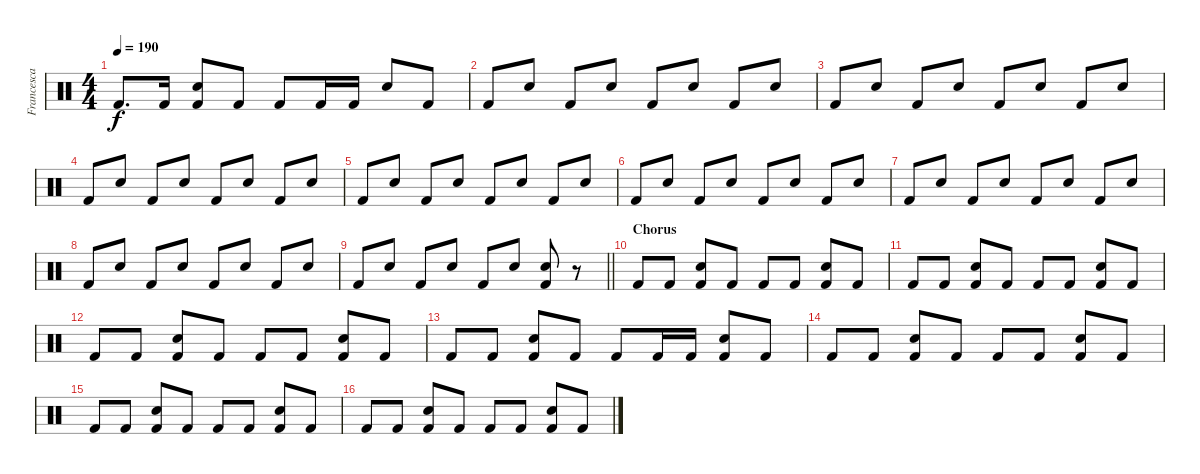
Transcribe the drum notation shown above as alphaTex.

\track ("Francesca Tresca" "Francesca ") {instrument percussion}
\staff {score}
\articulation defaults
\ts (4 4)
\tempo 190
\clef neutral
\ks c "Kick (hit) 2".8{d dy f} "Kick (hit) 2".16
("Snare (hit) 2" "Kick (hit) 2").8 "Kick (hit) 2".8 "Kick (hit) 2".8 "Kick (hit) 2".16 "Kick (hit) 2".16 "Snare (hit) 2".8 "Kick (hit) 2".8 |
"Kick (hit) 2".8 "Snare (hit) 2".8 "Kick (hit) 2".8 "Snare (hit) 2".8 "Kick (hit) 2".8 "Snare (hit) 2".8 "Kick (hit) 2".8 "Snare (hit) 2".8 |
"Kick (hit) 2".8 "Snare (hit) 2".8 "Kick (hit) 2".8 "Snare (hit) 2".8 "Kick (hit) 2".8 "Snare (hit) 2".8 "Kick (hit) 2".8 "Snare (hit) 2".8 |
"Kick (hit) 2".8 "Snare (hit) 2".8 "Kick (hit) 2".8 "Snare (hit) 2".8 "Kick (hit) 2".8 "Snare (hit) 2".8 "Kick (hit) 2".8 "Snare (hit) 2".8 |
"Kick (hit) 2".8 "Snare (hit) 2".8 "Kick (hit) 2".8 "Snare (hit) 2".8 "Kick (hit) 2".8 "Snare (hit) 2".8 "Kick (hit) 2".8 "Snare (hit) 2".8 |
"Kick (hit) 2".8 "Snare (hit) 2".8 "Kick (hit) 2".8 "Snare (hit) 2".8 "Kick (hit) 2".8 "Snare (hit) 2".8 "Kick (hit) 2".8 "Snare (hit) 2".8 |
"Kick (hit) 2".8 "Snare (hit) 2".8 "Kick (hit) 2".8 "Snare (hit) 2".8 "Kick (hit) 2".8 "Snare (hit) 2".8 "Kick (hit) 2".8 "Snare (hit) 2".8 |
"Kick (hit) 2".8 "Snare (hit) 2".8 "Kick (hit) 2".8 "Snare (hit) 2".8 "Kick (hit) 2".8 "Snare (hit) 2".8 "Kick (hit) 2".8 "Snare (hit) 2".8 |
\barLineRight lightlight "Kick (hit) 2".8 "Snare (hit) 2".8 "Kick (hit) 2".8 "Snare (hit) 2".8 "Kick (hit) 2".8 "Snare (hit) 2".8
("Snare (hit) 2" "Kick (hit) 2").8 r.8 |
\section ("" "Chorus")
"Kick (hit) 2".8 "Kick (hit) 2".8 ("Snare (hit) 2" "Kick (hit) 2").8 "Kick (hit) 2".8 "Kick (hit) 2".8 "Kick (hit) 2".8 ("Snare (hit) 2" "Kick (hit) 2").8 "Kick (hit) 2".8 |
"Kick (hit) 2".8 "Kick (hit) 2".8 ("Snare (hit) 2" "Kick (hit) 2").8 "Kick (hit) 2".8 "Kick (hit) 2".8 "Kick (hit) 2".8 ("Snare (hit) 2" "Kick (hit) 2").8 "Kick (hit) 2".8 |
"Kick (hit) 2".8 "Kick (hit) 2".8 ("Snare (hit) 2" "Kick (hit) 2").8 "Kick (hit) 2".8 "Kick (hit) 2".8 "Kick (hit) 2".8 ("Snare (hit) 2" "Kick (hit) 2").8 "Kick (hit) 2".8 |
"Kick (hit) 2".8 "Kick (hit) 2".8 ("Snare (hit) 2" "Kick (hit) 2").8 "Kick (hit) 2".8 "Kick (hit) 2".8 "Kick (hit) 2".16 "Kick (hit) 2".16 ("Snare (hit) 2" "Kick (hit) 2").8 "Kick (hit) 2".8 |
"Kick (hit) 2".8 "Kick (hit) 2".8 ("Snare (hit) 2" "Kick (hit) 2").8 "Kick (hit) 2".8 "Kick (hit) 2".8 "Kick (hit) 2".8 ("Snare (hit) 2" "Kick (hit) 2").8 "Kick (hit) 2".8 |
"Kick (hit) 2".8 "Kick (hit) 2".8 ("Snare (hit) 2" "Kick (hit) 2").8 "Kick (hit) 2".8 "Kick (hit) 2".8 "Kick (hit) 2".8 ("Snare (hit) 2" "Kick (hit) 2").8 "Kick (hit) 2".8 |
"Kick (hit) 2".8 "Kick (hit) 2".8 ("Snare (hit) 2" "Kick (hit) 2").8 "Kick (hit) 2".8 "Kick (hit) 2".8 "Kick (hit) 2".8 ("Snare (hit) 2" "Kick (hit) 2").8 "Kick (hit) 2".8
